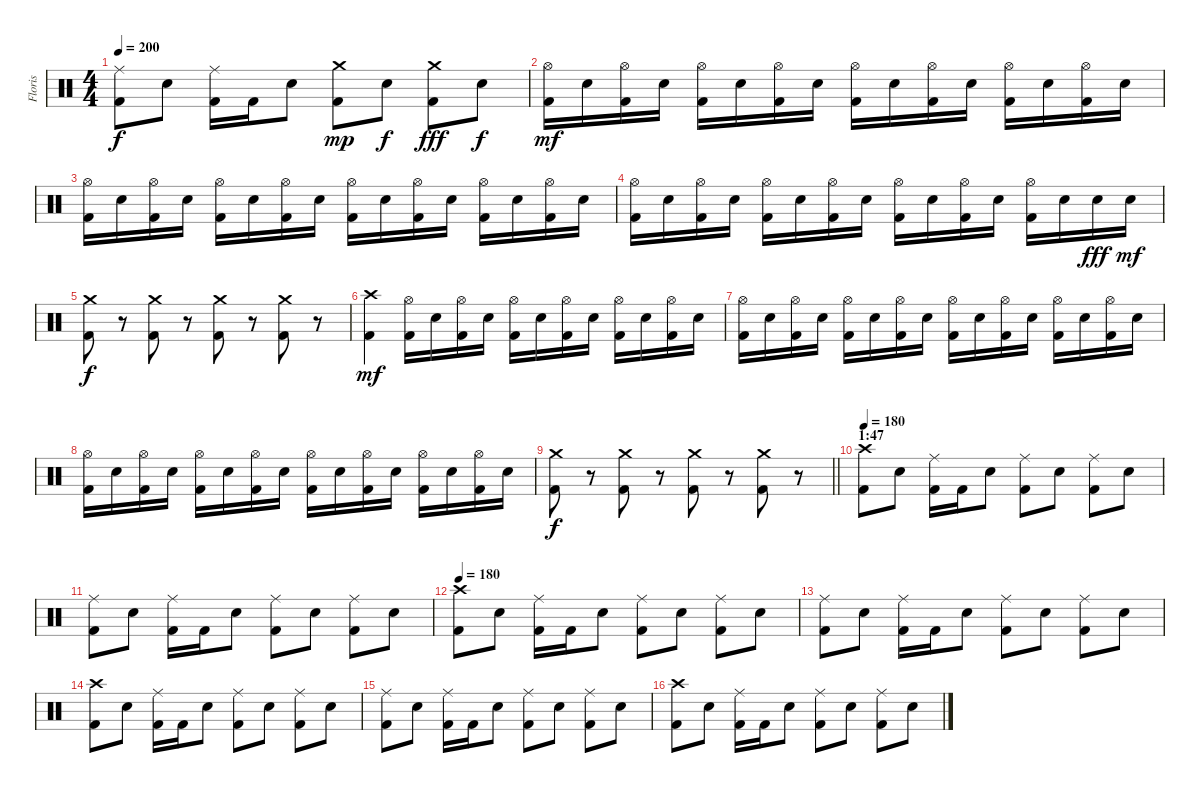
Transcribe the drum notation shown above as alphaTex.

\track ("Floris" "Floris") {instrument percussion}
\staff {score}
\articulation defaults
\ts (4 4)
\tempo 200
\clef neutral
\ks c
("Ride (middle)" "Kick (hit) 2").8{dy f} "Electric Snare (hit)".8 ("Ride (middle)" "Kick (hit) 2").16 "Kick (hit) 2".16 "Electric Snare (hit)".8 ("Crash medium (hit)" "Kick (hit) 2").8{dy mp} "Electric Snare (hit)".8{dy f} ("Crash medium (hit)" "Kick (hit) 2").8{dy fff} "Electric Snare (hit)".8{dy f} |
("Hi-Hat (open)" "Kick (hit) 2").16{dy mf} "Electric Snare (hit)".16 ("Hi-Hat (open)" "Kick (hit) 2").16 "Electric Snare (hit)".16 ("Hi-Hat (open)" "Kick (hit) 2").16 "Electric Snare (hit)".16 ("Hi-Hat (open)" "Kick (hit) 2").16 "Electric Snare (hit)".16 ("Hi-Hat (open)" "Kick (hit) 2").16 "Electric Snare (hit)".16 ("Hi-Hat (open)" "Kick (hit) 2").16 "Electric Snare (hit)".16 ("Hi-Hat (open)" "Kick (hit) 2").16 "Electric Snare (hit)".16 ("Hi-Hat (open)" "Kick (hit) 2").16 "Electric Snare (hit)".16 |
("Hi-Hat (open)" "Kick (hit) 2").16 "Electric Snare (hit)".16 ("Hi-Hat (open)" "Kick (hit) 2").16 "Electric Snare (hit)".16 ("Hi-Hat (open)" "Kick (hit) 2").16 "Electric Snare (hit)".16 ("Hi-Hat (open)" "Kick (hit) 2").16 "Electric Snare (hit)".16 ("Hi-Hat (open)" "Kick (hit) 2").16 "Electric Snare (hit)".16 ("Hi-Hat (open)" "Kick (hit) 2").16 "Electric Snare (hit)".16 ("Hi-Hat (open)" "Kick (hit) 2").16 "Electric Snare (hit)".16 ("Hi-Hat (open)" "Kick (hit) 2").16 "Electric Snare (hit)".16 |
("Hi-Hat (open)" "Kick (hit) 2").16 "Electric Snare (hit)".16 ("Hi-Hat (open)" "Kick (hit) 2").16 "Electric Snare (hit)".16 ("Hi-Hat (open)" "Kick (hit) 2").16 "Electric Snare (hit)".16 ("Hi-Hat (open)" "Kick (hit) 2").16 "Electric Snare (hit)".16 ("Hi-Hat (open)" "Kick (hit) 2").16 "Electric Snare (hit)".16 ("Hi-Hat (open)" "Kick (hit) 2").16 "Electric Snare (hit)".16 ("Hi-Hat (open)" "Kick (hit) 2").16 "Electric Snare (hit)".16 "Electric Snare (hit)".16{dy fff} "Electric Snare (hit)".16{dy mf} |
("Crash medium (hit)" "Kick (hit) 2").8{dy f} r.8{volume 0} ("Crash medium (hit)" "Kick (hit) 2").8{volume 16} r.8{volume 0} ("Crash medium (hit)" "Kick (hit) 2").8{volume 16} r.8{volume 0} ("Crash medium (hit)" "Kick (hit) 2").8{volume 16} r.8{volume 0} |
("Crash high (hit)" "Kick (hit) 2").4{dy mf volume 16} ("Hi-Hat (open)" "Kick (hit) 2").16 "Electric Snare (hit)".16 ("Hi-Hat (open)" "Kick (hit) 2").16 "Electric Snare (hit)".16 ("Hi-Hat (open)" "Kick (hit) 2").16 "Electric Snare (hit)".16 ("Hi-Hat (open)" "Kick (hit) 2").16 "Electric Snare (hit)".16 ("Hi-Hat (open)" "Kick (hit) 2").16 "Electric Snare (hit)".16 ("Hi-Hat (open)" "Kick (hit) 2").16 "Electric Snare (hit)".16 |
("Hi-Hat (open)" "Kick (hit) 2").16 "Electric Snare (hit)".16 ("Hi-Hat (open)" "Kick (hit) 2").16 "Electric Snare (hit)".16 ("Hi-Hat (open)" "Kick (hit) 2").16 "Electric Snare (hit)".16 ("Hi-Hat (open)" "Kick (hit) 2").16 "Electric Snare (hit)".16 ("Hi-Hat (open)" "Kick (hit) 2").16 "Electric Snare (hit)".16 ("Hi-Hat (open)" "Kick (hit) 2").16 "Electric Snare (hit)".16 ("Hi-Hat (open)" "Kick (hit) 2").16 "Electric Snare (hit)".16 ("Hi-Hat (open)" "Kick (hit) 2").16 "Electric Snare (hit)".16 |
("Hi-Hat (open)" "Kick (hit) 2").16 "Electric Snare (hit)".16 ("Hi-Hat (open)" "Kick (hit) 2").16 "Electric Snare (hit)".16 ("Hi-Hat (open)" "Kick (hit) 2").16 "Electric Snare (hit)".16 ("Hi-Hat (open)" "Kick (hit) 2").16 "Electric Snare (hit)".16 ("Hi-Hat (open)" "Kick (hit) 2").16 "Electric Snare (hit)".16 ("Hi-Hat (open)" "Kick (hit) 2").16 "Electric Snare (hit)".16 ("Hi-Hat (open)" "Kick (hit) 2").16 "Electric Snare (hit)".16 ("Hi-Hat (open)" "Kick (hit) 2").16 "Electric Snare (hit)".16 |
\barLineRight lightlight
("Crash medium (hit)" "Kick (hit) 2").8{dy f} r.8{volume 0} ("Crash medium (hit)" "Kick (hit) 2").8{volume 16} r.8{volume 0} ("Crash medium (hit)" "Kick (hit) 2").8{volume 16} r.8{volume 0} ("Crash medium (hit)" "Kick (hit) 2").8{volume 16} r.8{volume 0} |
\section ("" "1:47")
\tempo 180
("Crash high (hit)" "Kick (hit) 2").8{volume 16} "Electric Snare (hit)".8 ("Ride (middle)" "Kick (hit) 2").16 "Kick (hit) 2".16 "Electric Snare (hit)".8 ("Ride (middle)" "Kick (hit) 2").8 "Electric Snare (hit)".8 ("Ride (middle)" "Kick (hit) 2").8 "Electric Snare (hit)".8 |
("Ride (middle)" "Kick (hit) 2").8 "Electric Snare (hit)".8 ("Ride (middle)" "Kick (hit) 2").16 "Kick (hit) 2".16 "Electric Snare (hit)".8 ("Ride (middle)" "Kick (hit) 2").8 "Electric Snare (hit)".8 ("Ride (middle)" "Kick (hit) 2").8 "Electric Snare (hit)".8 |
\tempo 180
("Crash high (hit)" "Kick (hit) 2").8 "Electric Snare (hit)".8 ("Ride (middle)" "Kick (hit) 2").16 "Kick (hit) 2".16 "Electric Snare (hit)".8 ("Ride (middle)" "Kick (hit) 2").8 "Electric Snare (hit)".8 ("Ride (middle)" "Kick (hit) 2").8 "Electric Snare (hit)".8 |
("Ride (middle)" "Kick (hit) 2").8 "Electric Snare (hit)".8 ("Ride (middle)" "Kick (hit) 2").16 "Kick (hit) 2".16 "Electric Snare (hit)".8 ("Ride (middle)" "Kick (hit) 2").8 "Electric Snare (hit)".8 ("Ride (middle)" "Kick (hit) 2").8 "Electric Snare (hit)".8 |
("Crash high (hit)" "Kick (hit) 2").8 "Electric Snare (hit)".8 ("Ride (middle)" "Kick (hit) 2").16 "Kick (hit) 2".16 "Electric Snare (hit)".8 ("Ride (middle)" "Kick (hit) 2").8 "Electric Snare (hit)".8 ("Ride (middle)" "Kick (hit) 2").8 "Electric Snare (hit)".8 |
("Ride (middle)" "Kick (hit) 2").8 "Electric Snare (hit)".8 ("Ride (middle)" "Kick (hit) 2").16 "Kick (hit) 2".16 "Electric Snare (hit)".8 ("Ride (middle)" "Kick (hit) 2").8 "Electric Snare (hit)".8 ("Ride (middle)" "Kick (hit) 2").8 "Electric Snare (hit)".8 |
("Crash high (hit)" "Kick (hit) 2").8 "Electric Snare (hit)".8 ("Ride (middle)" "Kick (hit) 2").16 "Kick (hit) 2".16 "Electric Snare (hit)".8 ("Ride (middle)" "Kick (hit) 2").8 "Electric Snare (hit)".8 ("Ride (middle)" "Kick (hit) 2").8 "Electric Snare (hit)".8
